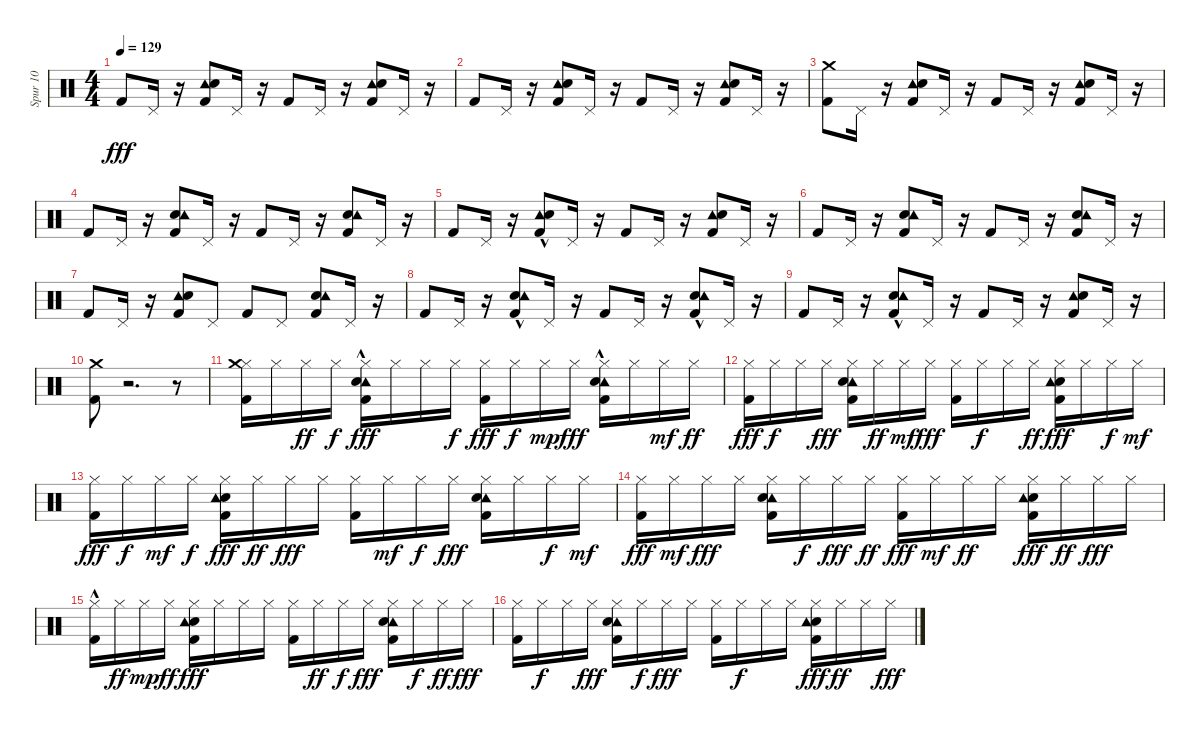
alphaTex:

\track ("Spur 10" "Spur 10") {instrument percussion}
\staff {score}
\articulation defaults
\ts (4 4)
\tempo 129
\clef neutral
\ks c "Kick (hit) 2".8{dy fff} "Pedal Hi-Hat (hit)".16
r.16 ("Tambourine (hit)" "Electric Snare (hit)" "Kick (hit) 2").8 "Pedal Hi-Hat (hit)".16 r.16 "Kick (hit) 2".8 "Pedal Hi-Hat (hit)".16 r.16 ("Kick (hit) 2" "Tambourine (hit)" "Electric Snare (hit)").8 "Pedal Hi-Hat (hit)".16 r.16 |
"Kick (hit) 2".8 "Pedal Hi-Hat (hit)".16 r.16 ("Kick (hit) 2" "Tambourine (hit)" "Electric Snare (hit)").8 "Pedal Hi-Hat (hit)".16 r.16 "Kick (hit) 2".8 "Pedal Hi-Hat (hit)".16 r.16 ("Kick (hit) 2" "Tambourine (hit)" "Electric Snare (hit)").8 "Pedal Hi-Hat (hit)".16 r.16 |
("Crash medium (hit)" "Kick (hit) 2").8 "Pedal Hi-Hat (hit)".16 r.16 ("Tambourine (hit)" "Kick (hit) 2" "Electric Snare (hit)").8 "Pedal Hi-Hat (hit)".16 r.16 "Kick (hit) 2".8 "Pedal Hi-Hat (hit)".16 r.16 ("Tambourine (hit)" "Kick (hit) 2" "Electric Snare (hit)").8 "Pedal Hi-Hat (hit)".16 r.16 |
"Kick (hit) 2".8 "Pedal Hi-Hat (hit)".16 r.16 ("Kick (hit) 2" "Electric Snare (hit)" "Tambourine (hit)").8 "Pedal Hi-Hat (hit)".16 r.16 "Kick (hit) 2".8 "Pedal Hi-Hat (hit)".16 r.16 ("Kick (hit) 2" "Electric Snare (hit)" "Tambourine (hit)").8 "Pedal Hi-Hat (hit)".16 r.16 |
"Kick (hit) 2".8 "Pedal Hi-Hat (hit)".16 r.16 ("Tambourine (hit)" "Electric Snare (hit)"{hac} "Kick (hit) 2").8 "Pedal Hi-Hat (hit)".16 r.16 "Kick (hit) 2".8 "Pedal Hi-Hat (hit)".16 r.16 ("Tambourine (hit)" "Kick (hit) 2" "Electric Snare (hit)").8 "Pedal Hi-Hat (hit)".16 r.16 |
"Kick (hit) 2".8 "Pedal Hi-Hat (hit)".16 r.16 ("Electric Snare (hit)" "Tambourine (hit)" "Kick (hit) 2").8 "Pedal Hi-Hat (hit)".16 r.16 "Kick (hit) 2".8 "Pedal Hi-Hat (hit)".16 r.16 ("Electric Snare (hit)" "Kick (hit) 2" "Tambourine (hit)").8 "Pedal Hi-Hat (hit)".16 r.16 |
"Kick (hit) 2".8 "Pedal Hi-Hat (hit)".16 r.16 ("Kick (hit) 2" "Tambourine (hit)" "Electric Snare (hit)").8 "Pedal Hi-Hat (hit)".8 "Kick (hit) 2".8 "Pedal Hi-Hat (hit)".8 ("Kick (hit) 2" "Electric Snare (hit)" "Tambourine (hit)").8 "Pedal Hi-Hat (hit)".16 r.16 |
"Kick (hit) 2".8 "Pedal Hi-Hat (hit)".16 r.16 ("Electric Snare (hit)"{hac} "Kick (hit) 2" "Tambourine (hit)").8 "Pedal Hi-Hat (hit)".16 r.16 "Kick (hit) 2".8 "Pedal Hi-Hat (hit)".16 r.16 ("Kick (hit) 2" "Electric Snare (hit)"{hac} "Tambourine (hit)").8 "Pedal Hi-Hat (hit)".16 r.16 |
"Kick (hit) 2".8 "Pedal Hi-Hat (hit)".16 r.16 ("Kick (hit) 2" "Electric Snare (hit)"{hac} "Tambourine (hit)").8 "Pedal Hi-Hat (hit)".16 r.16 "Kick (hit) 2".8 "Pedal Hi-Hat (hit)".16 r.16 ("Kick (hit) 2" "Tambourine (hit)" "Electric Snare (hit)").8 "Pedal Hi-Hat (hit)".16 r.16 |
("Crash medium (hit)" "Kick (hit) 2").8 r.2{d} r.8 |
("Kick (hit) 2" "Hi-Hat (closed)" "Crash medium (hit)").16 "Hi-Hat (closed)".16 "Hi-Hat (closed)".16{dy ff} "Hi-Hat (closed)".16{dy f} ("Hi-Hat (closed)" "Tambourine (hit)" "Electric Snare (hit)" "Kick (hit) 2"{hac}).16{dy fff} "Hi-Hat (closed)".16 "Hi-Hat (closed)".16 "Hi-Hat (closed)".16{dy f} ("Kick (hit) 2" "Hi-Hat (closed)").16{dy fff} "Hi-Hat (closed)".16{dy f} "Hi-Hat (closed)".16{dy mp} "Hi-Hat (closed)".16{dy fff} ("Hi-Hat (closed)" "Tambourine (hit)" "Electric Snare (hit)"{hac} "Kick (hit) 2").16 "Hi-Hat (closed)".16 "Hi-Hat (closed)".16{dy mf} "Hi-Hat (closed)".16{dy ff} |
("Kick (hit) 2" "Hi-Hat (closed)").16{dy fff} "Hi-Hat (closed)".16{dy f} "Hi-Hat (closed)".16 "Hi-Hat (closed)".16{dy fff} ("Tambourine (hit)" "Electric Snare (hit)" "Hi-Hat (closed)" "Kick (hit) 2").16 "Hi-Hat (closed)".16{dy ff} "Hi-Hat (closed)".16{dy mf} "Hi-Hat (closed)".16{dy fff} ("Hi-Hat (closed)" "Kick (hit) 2").16 "Hi-Hat (closed)".16{dy f} "Hi-Hat (closed)".16 "Hi-Hat (closed)".16{dy ff} ("Electric Snare (hit)" "Hi-Hat (closed)" "Kick (hit) 2" "Tambourine (hit)").16{dy fff} "Hi-Hat (closed)".16 "Hi-Hat (closed)".16{dy f} "Hi-Hat (closed)".16{dy mf} |
("Kick (hit) 2" "Hi-Hat (closed)").16{dy fff} "Hi-Hat (closed)".16{dy f} "Hi-Hat (closed)".16{dy mf} "Hi-Hat (closed)".16{dy f} ("Electric Snare (hit)" "Tambourine (hit)" "Kick (hit) 2" "Hi-Hat (closed)").16{dy fff} "Hi-Hat (closed)".16{dy ff} "Hi-Hat (closed)".16{dy fff} "Hi-Hat (closed)".16 ("Hi-Hat (closed)" "Kick (hit) 2").16 "Hi-Hat (closed)".16{dy mf} "Hi-Hat (closed)".16{dy f} "Hi-Hat (closed)".16{dy fff} ("Tambourine (hit)" "Electric Snare (hit)" "Kick (hit) 2" "Hi-Hat (closed)").16 "Hi-Hat (closed)".16 "Hi-Hat (closed)".16{dy f} "Hi-Hat (closed)".16{dy mf} |
("Hi-Hat (closed)" "Kick (hit) 2").16{dy fff} "Hi-Hat (closed)".16{dy mf} "Hi-Hat (closed)".16{dy fff} "Hi-Hat (closed)".16 ("Kick (hit) 2" "Tambourine (hit)" "Electric Snare (hit)" "Hi-Hat (closed)").16 "Hi-Hat (closed)".16{dy f} "Hi-Hat (closed)".16{dy fff} "Hi-Hat (closed)".16{dy ff} ("Kick (hit) 2" "Hi-Hat (closed)").16{dy fff} "Hi-Hat (closed)".16{dy mf} "Hi-Hat (closed)".16{dy ff} "Hi-Hat (closed)".16 ("Electric Snare (hit)" "Hi-Hat (closed)" "Tambourine (hit)" "Kick (hit) 2").16{dy fff} "Hi-Hat (closed)".16{dy ff} "Hi-Hat (closed)".16{dy fff} "Hi-Hat (closed)".16 |
("Hi-Hat (closed)" "Kick (hit) 2"{hac}).16 "Hi-Hat (closed)".16{dy ff} "Hi-Hat (closed)".16{dy mp} "Hi-Hat (closed)".16{dy ff} ("Electric Snare (hit)" "Hi-Hat (closed)" "Kick (hit) 2" "Tambourine (hit)").16{dy fff} "Hi-Hat (closed)".16 "Hi-Hat (closed)".16 "Hi-Hat (closed)".16 ("Hi-Hat (closed)" "Kick (hit) 2").16 "Hi-Hat (closed)".16{dy ff} "Hi-Hat (closed)".16{dy f} "Hi-Hat (closed)".16{dy fff} ("Tambourine (hit)" "Kick (hit) 2" "Electric Snare (hit)" "Hi-Hat (closed)").16 "Hi-Hat (closed)".16{dy f} "Hi-Hat (closed)".16{dy ff} "Hi-Hat (closed)".16{dy fff} |
("Kick (hit) 2" "Hi-Hat (closed)").16 "Hi-Hat (closed)".16{dy f} "Hi-Hat (closed)".16 "Hi-Hat (closed)".16{dy fff} ("Hi-Hat (closed)" "Tambourine (hit)" "Kick (hit) 2" "Electric Snare (hit)").16 "Hi-Hat (closed)".16{dy f} "Hi-Hat (closed)".16{dy fff} "Hi-Hat (closed)".16 ("Kick (hit) 2" "Hi-Hat (closed)").16 "Hi-Hat (closed)".16{dy f} "Hi-Hat (closed)".16 "Hi-Hat (closed)".16 ("Electric Snare (hit)" "Tambourine (hit)" "Kick (hit) 2" "Hi-Hat (closed)").16{dy fff} "Hi-Hat (closed)".16{dy ff} "Hi-Hat (closed)".16 "Hi-Hat (closed)".16{dy fff}
